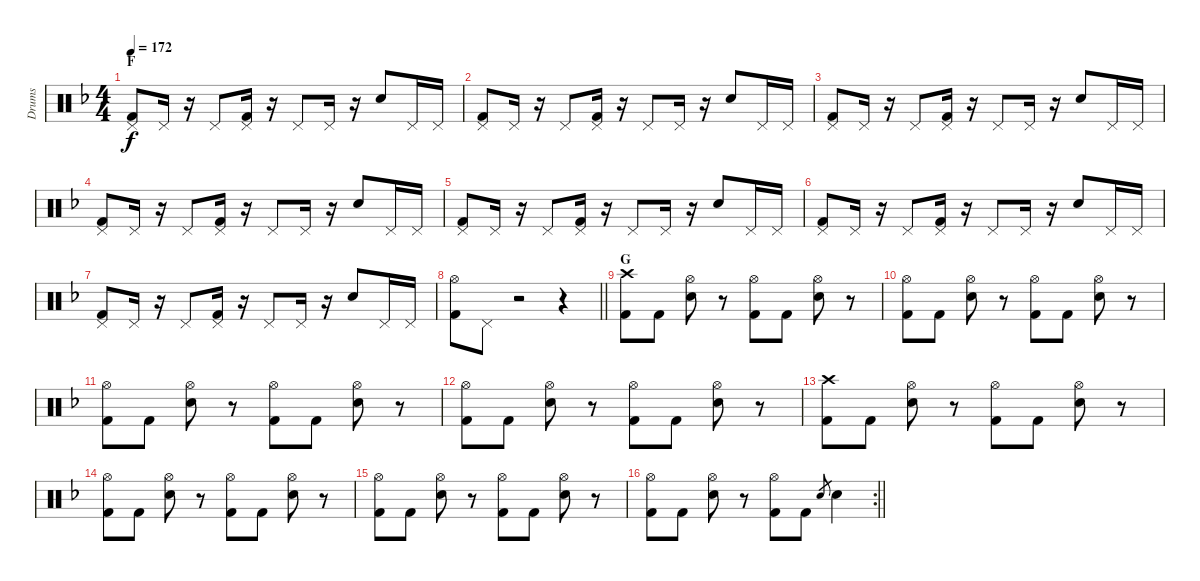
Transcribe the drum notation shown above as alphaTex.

\track ("Drums" "Drums") {instrument percussion}
\staff {score}
\articulation defaults
\ts (4 4)
\section ("" "F")
\tempo 172
\clef neutral
\ks f
("Pedal Hi-Hat (hit)" "Kick (hit) 2").8{dy f} "Pedal Hi-Hat (hit)".16 r.16 "Pedal Hi-Hat (hit)".8 ("Pedal Hi-Hat (hit)" "Kick (hit) 2").16 r.16 "Pedal Hi-Hat (hit)".8 "Pedal Hi-Hat (hit)".16 r.16 "Electric Snare (hit)".8 "Pedal Hi-Hat (hit)".16 "Pedal Hi-Hat (hit)".16 |
("Pedal Hi-Hat (hit)" "Kick (hit) 2").8 "Pedal Hi-Hat (hit)".16 r.16 "Pedal Hi-Hat (hit)".8 ("Pedal Hi-Hat (hit)" "Kick (hit) 2").16 r.16 "Pedal Hi-Hat (hit)".8 "Pedal Hi-Hat (hit)".16 r.16 "Electric Snare (hit)".8 "Pedal Hi-Hat (hit)".16 "Pedal Hi-Hat (hit)".16 |
("Pedal Hi-Hat (hit)" "Kick (hit) 2").8 "Pedal Hi-Hat (hit)".16 r.16 "Pedal Hi-Hat (hit)".8 ("Pedal Hi-Hat (hit)" "Kick (hit) 2").16 r.16 "Pedal Hi-Hat (hit)".8 "Pedal Hi-Hat (hit)".16 r.16 "Electric Snare (hit)".8 "Pedal Hi-Hat (hit)".16 "Pedal Hi-Hat (hit)".16 |
("Pedal Hi-Hat (hit)" "Kick (hit) 2").8 "Pedal Hi-Hat (hit)".16 r.16 "Pedal Hi-Hat (hit)".8 ("Pedal Hi-Hat (hit)" "Kick (hit) 2").16 r.16 "Pedal Hi-Hat (hit)".8 "Pedal Hi-Hat (hit)".16 r.16 "Electric Snare (hit)".8 "Pedal Hi-Hat (hit)".16 "Pedal Hi-Hat (hit)".16 |
("Pedal Hi-Hat (hit)" "Kick (hit) 2").8 "Pedal Hi-Hat (hit)".16 r.16 "Pedal Hi-Hat (hit)".8 ("Pedal Hi-Hat (hit)" "Kick (hit) 2").16 r.16 "Pedal Hi-Hat (hit)".8 "Pedal Hi-Hat (hit)".16 r.16 "Electric Snare (hit)".8 "Pedal Hi-Hat (hit)".16 "Pedal Hi-Hat (hit)".16 |
("Pedal Hi-Hat (hit)" "Kick (hit) 2").8 "Pedal Hi-Hat (hit)".16 r.16 "Pedal Hi-Hat (hit)".8 ("Pedal Hi-Hat (hit)" "Kick (hit) 2").16 r.16 "Pedal Hi-Hat (hit)".8 "Pedal Hi-Hat (hit)".16 r.16 "Electric Snare (hit)".8 "Pedal Hi-Hat (hit)".16 "Pedal Hi-Hat (hit)".16 |
("Pedal Hi-Hat (hit)" "Kick (hit) 2").8 "Pedal Hi-Hat (hit)".16 r.16 "Pedal Hi-Hat (hit)".8 ("Pedal Hi-Hat (hit)" "Kick (hit) 2").16 r.16 "Pedal Hi-Hat (hit)".8 "Pedal Hi-Hat (hit)".16 r.16 "Electric Snare (hit)".8 "Pedal Hi-Hat (hit)".16 "Pedal Hi-Hat (hit)".16 |
\barLineRight lightlight
("Hi-Hat (open)" "Kick (hit) 2").8 "Pedal Hi-Hat (hit)".8 r.2 r.4 |
\section ("" "G")
("Crash high (hit)" "Kick (hit) 2").8 "Kick (hit) 2".8 ("Hi-Hat (open)" "Electric Snare (hit)").8 r.8 ("Hi-Hat (open)" "Kick (hit) 2").8 "Kick (hit) 2".8 ("Hi-Hat (open)" "Electric Snare (hit)").8 r.8 |
("Hi-Hat (open)" "Kick (hit) 2").8 "Kick (hit) 2".8 ("Hi-Hat (open)" "Electric Snare (hit)").8 r.8 ("Hi-Hat (open)" "Kick (hit) 2").8 "Kick (hit) 2".8 ("Hi-Hat (open)" "Electric Snare (hit)").8 r.8 |
("Hi-Hat (open)" "Kick (hit) 2").8 "Kick (hit) 2".8 ("Hi-Hat (open)" "Electric Snare (hit)").8 r.8 ("Hi-Hat (open)" "Kick (hit) 2").8 "Kick (hit) 2".8 ("Hi-Hat (open)" "Electric Snare (hit)").8 r.8 |
("Hi-Hat (open)" "Kick (hit) 2").8 "Kick (hit) 2".8 ("Hi-Hat (open)" "Electric Snare (hit)").8 r.8 ("Hi-Hat (open)" "Kick (hit) 2").8 "Kick (hit) 2".8 ("Hi-Hat (open)" "Electric Snare (hit)").8 r.8 |
("Crash high (hit)" "Kick (hit) 2").8 "Kick (hit) 2".8 ("Hi-Hat (open)" "Electric Snare (hit)").8 r.8 ("Hi-Hat (open)" "Kick (hit) 2").8 "Kick (hit) 2".8 ("Hi-Hat (open)" "Electric Snare (hit)").8 r.8 |
("Hi-Hat (open)" "Kick (hit) 2").8 "Kick (hit) 2".8 ("Hi-Hat (open)" "Electric Snare (hit)").8 r.8 ("Hi-Hat (open)" "Kick (hit) 2").8 "Kick (hit) 2".8 ("Hi-Hat (open)" "Electric Snare (hit)").8 r.8 |
("Hi-Hat (open)" "Kick (hit) 2").8 "Kick (hit) 2".8 ("Hi-Hat (open)" "Electric Snare (hit)").8 r.8 ("Hi-Hat (open)" "Kick (hit) 2").8 "Kick (hit) 2".8 ("Hi-Hat (open)" "Electric Snare (hit)").8 r.8 |
\rc 2
\barLineRight lightlight
("Hi-Hat (open)" "Kick (hit) 2").8 "Kick (hit) 2".8 ("Hi-Hat (open)" "Electric Snare (hit)").8 r.8 ("Hi-Hat (open)" "Kick (hit) 2").8 "Kick (hit) 2".8 "Electric Snare (hit)".8{gr} "Electric Snare (hit)".4
